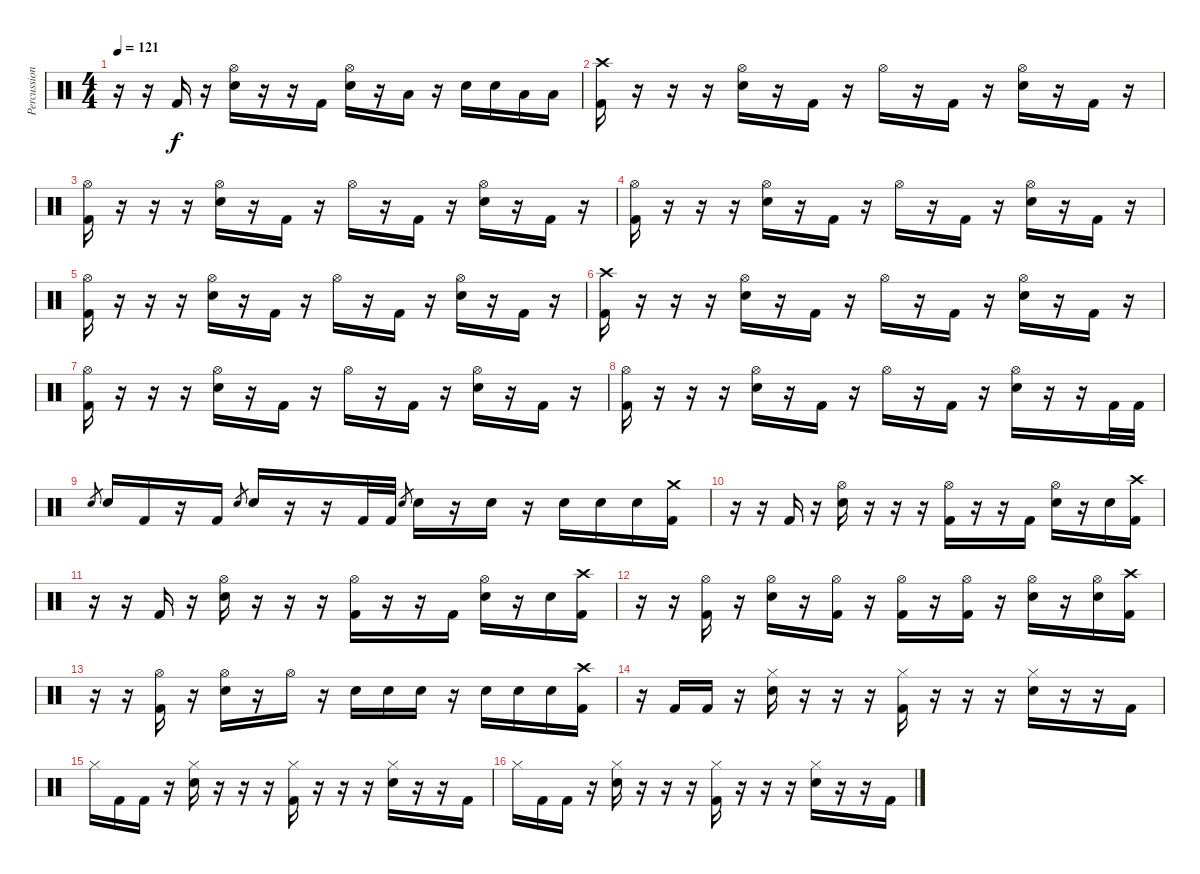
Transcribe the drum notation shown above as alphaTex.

\track ("Percussion" "Percussion") {instrument percussion}
\staff {score}
\articulation defaults
\ts (4 4)
\tempo 121
\clef neutral
\ks c
r.16{dy f} r.16 "Kick (hit) 2".16 r.16 ("Hi-Hat (open)" "Electric Snare (hit)").16 r.16 r.16 "Kick (hit) 2".16 ("Hi-Hat (open)" "Electric Snare (hit)").16 r.16 "Low Tom (hit)".16 r.16 "Electric Snare (hit)".16 "Electric Snare (hit)".16 "Low Tom (hit)".16 "Low Tom (hit)".16 |
("Crash high (hit)" "Kick (hit) 2").16 r.16 r.16 r.16 ("Hi-Hat (open)" "Electric Snare (hit)").16 r.16 "Kick (hit) 2".16 r.16 "Hi-Hat (open)".16 r.16 "Kick (hit) 2".16 r.16 ("Hi-Hat (open)" "Electric Snare (hit)").16 r.16 "Kick (hit) 2".16 r.16 |
("Hi-Hat (open)" "Kick (hit) 2").16 r.16 r.16 r.16 ("Hi-Hat (open)" "Electric Snare (hit)").16 r.16 "Kick (hit) 2".16 r.16 "Hi-Hat (open)".16 r.16 "Kick (hit) 2".16 r.16 ("Hi-Hat (open)" "Electric Snare (hit)").16 r.16 "Kick (hit) 2".16 r.16 |
("Hi-Hat (open)" "Kick (hit) 2").16 r.16 r.16 r.16 ("Hi-Hat (open)" "Electric Snare (hit)").16 r.16 "Kick (hit) 2".16 r.16 "Hi-Hat (open)".16 r.16 "Kick (hit) 2".16 r.16 ("Hi-Hat (open)" "Electric Snare (hit)").16 r.16 "Kick (hit) 2".16 r.16 |
("Hi-Hat (open)" "Kick (hit) 2").16 r.16 r.16 r.16 ("Hi-Hat (open)" "Electric Snare (hit)").16 r.16 "Kick (hit) 2".16 r.16 "Hi-Hat (open)".16 r.16 "Kick (hit) 2".16 r.16 ("Hi-Hat (open)" "Electric Snare (hit)").16 r.16 "Kick (hit) 2".16 r.16 |
("Crash high (hit)" "Kick (hit) 2").16 r.16 r.16 r.16 ("Hi-Hat (open)" "Electric Snare (hit)").16 r.16 "Kick (hit) 2".16 r.16 "Hi-Hat (open)".16 r.16 "Kick (hit) 2".16 r.16 ("Hi-Hat (open)" "Electric Snare (hit)").16 r.16 "Kick (hit) 2".16 r.16 |
("Hi-Hat (open)" "Kick (hit) 2").16 r.16 r.16 r.16 ("Hi-Hat (open)" "Electric Snare (hit)").16 r.16 "Kick (hit) 2".16 r.16 "Hi-Hat (open)".16 r.16 "Kick (hit) 2".16 r.16 ("Hi-Hat (open)" "Electric Snare (hit)").16 r.16 "Kick (hit) 2".16 r.16 |
("Hi-Hat (open)" "Kick (hit) 2").16 r.16 r.16 r.16 ("Hi-Hat (open)" "Electric Snare (hit)").16 r.16 "Kick (hit) 2".16 r.16 "Hi-Hat (open)".16 r.16 "Kick (hit) 2".16 r.16 ("Hi-Hat (open)" "Electric Snare (hit)").16 r.16 r.16 "Kick (hit) 2".32 "Kick (hit) 2".32 |
"Electric Snare (hit)".8{gr} "Electric Snare (hit)".16 "Kick (hit) 2".16 r.16 "Kick (hit) 2".16 "Electric Snare (hit)".8{gr} "Electric Snare (hit)".16 r.16 r.16 "Kick (hit) 2".32 "Kick (hit) 2".32 "Electric Snare (hit)".8{gr} "Electric Snare (hit)".16 r.16 "Electric Snare (hit)".16 r.16 "Electric Snare (hit)".16 "Electric Snare (hit)".16 "Electric Snare (hit)".16 ("Crash medium (hit)" "Kick (hit) 2").16 |
r.16 r.16 "Kick (hit) 2".16 r.16 ("Hi-Hat (open)" "Electric Snare (hit)").16 r.16 r.16 r.16 ("Hi-Hat (open)" "Kick (hit) 2").16 r.16 r.16 "Kick (hit) 2".16 ("Hi-Hat (open)" "Electric Snare (hit)").16 r.16 "Electric Snare (hit)".16 ("Crash high (hit)" "Kick (hit) 2").16 |
r.16 r.16 "Kick (hit) 2".16 r.16 ("Hi-Hat (open)" "Electric Snare (hit)").16 r.16 r.16 r.16 ("Hi-Hat (open)" "Kick (hit) 2").16 r.16 r.16 "Kick (hit) 2".16 ("Hi-Hat (open)" "Electric Snare (hit)").16 r.16 "Electric Snare (hit)".16 ("Crash high (hit)" "Kick (hit) 2").16 |
r.16 r.16 ("Hi-Hat (open)" "Kick (hit) 2").16 r.16 ("Hi-Hat (open)" "Electric Snare (hit)").16 r.16 ("Hi-Hat (open)" "Kick (hit) 2").16 r.16 ("Hi-Hat (open)" "Kick (hit) 2").16 r.16 ("Hi-Hat (open)" "Kick (hit) 2").16 r.16 ("Hi-Hat (open)" "Electric Snare (hit)").16 r.16 ("Hi-Hat (open)" "Electric Snare (hit)").16 ("Crash high (hit)" "Kick (hit) 2").16 |
r.16 r.16 ("Hi-Hat (open)" "Kick (hit) 2").16 r.16 ("Hi-Hat (open)" "Electric Snare (hit)").16 r.16 "Hi-Hat (open)".16 r.16 "Electric Snare (hit)".16 "Electric Snare (hit)".16 "Electric Snare (hit)".16 r.16 "Electric Snare (hit)".16 "Electric Snare (hit)".16 "Electric Snare (hit)".16 ("Crash high (hit)" "Kick (hit) 2").16 |
r.16 "Kick (hit) 2".16 "Kick (hit) 2".16 r.16 ("Hi-Hat (closed)" "Electric Snare (hit)").16 r.16 r.16 r.16 ("Hi-Hat (closed)" "Kick (hit) 2").16 r.16 r.16 r.16 ("Hi-Hat (closed)" "Electric Snare (hit)").16 r.16 r.16 "Kick (hit) 2".16 |
"Hi-Hat (closed)".16 "Kick (hit) 2".16 "Kick (hit) 2".16 r.16 ("Hi-Hat (closed)" "Electric Snare (hit)").16 r.16 r.16 r.16 ("Hi-Hat (closed)" "Kick (hit) 2").16 r.16 r.16 r.16 ("Hi-Hat (closed)" "Electric Snare (hit)").16 r.16 r.16 "Kick (hit) 2".16 |
"Hi-Hat (closed)".16 "Kick (hit) 2".16 "Kick (hit) 2".16 r.16 ("Hi-Hat (closed)" "Electric Snare (hit)").16 r.16 r.16 r.16 ("Hi-Hat (closed)" "Kick (hit) 2").16 r.16 r.16 r.16 ("Hi-Hat (closed)" "Electric Snare (hit)").16 r.16 r.16 "Kick (hit) 2".16
